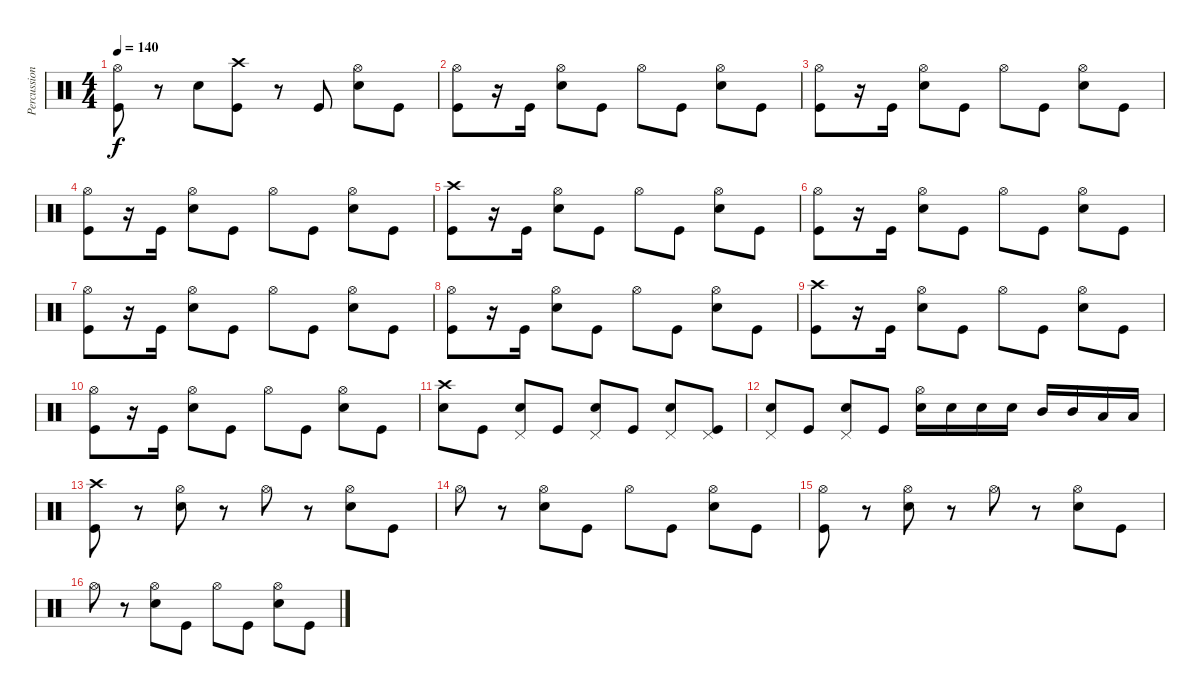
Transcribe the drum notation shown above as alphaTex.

\track ("Percussion" "Percussion") {instrument percussion}
\staff {score}
\articulation defaults
\ts (4 4)
\tempo 140
\clef neutral
\ks c
("Hi-Hat (open)" "Kick (hit)").8{dy f} r.8 "Snare (hit) 2".8 ("Crash high (hit)" "Kick (hit)").8 r.8 "Kick (hit)".8 ("Hi-Hat (open)" "Snare (hit) 2").8 "Kick (hit)".8 |
("Hi-Hat (open)" "Kick (hit)").8 r.16 "Kick (hit)".16 ("Hi-Hat (open)" "Snare (hit) 2").8 "Kick (hit)".8 "Hi-Hat (open)".8 "Kick (hit)".8 ("Hi-Hat (open)" "Snare (hit) 2").8 "Kick (hit)".8 |
("Hi-Hat (open)" "Kick (hit)").8 r.16 "Kick (hit)".16 ("Hi-Hat (open)" "Snare (hit) 2").8 "Kick (hit)".8 "Hi-Hat (open)".8 "Kick (hit)".8 ("Hi-Hat (open)" "Snare (hit) 2").8 "Kick (hit)".8 |
("Hi-Hat (open)" "Kick (hit)").8 r.16 "Kick (hit)".16 ("Hi-Hat (open)" "Snare (hit) 2").8 "Kick (hit)".8 "Hi-Hat (open)".8 "Kick (hit)".8 ("Hi-Hat (open)" "Snare (hit) 2").8 "Kick (hit)".8 |
("Crash high (hit)" "Kick (hit)").8 r.16 "Kick (hit)".16 ("Hi-Hat (open)" "Snare (hit) 2").8 "Kick (hit)".8 "Hi-Hat (open)".8 "Kick (hit)".8 ("Hi-Hat (open)" "Snare (hit) 2").8 "Kick (hit)".8 |
("Hi-Hat (open)" "Kick (hit)").8 r.16 "Kick (hit)".16 ("Hi-Hat (open)" "Snare (hit) 2").8 "Kick (hit)".8 "Hi-Hat (open)".8 "Kick (hit)".8 ("Hi-Hat (open)" "Snare (hit) 2").8 "Kick (hit)".8 |
("Hi-Hat (open)" "Kick (hit)").8 r.16 "Kick (hit)".16 ("Hi-Hat (open)" "Snare (hit) 2").8 "Kick (hit)".8 "Hi-Hat (open)".8 "Kick (hit)".8 ("Hi-Hat (open)" "Snare (hit) 2").8 "Kick (hit)".8 |
("Hi-Hat (open)" "Kick (hit)").8 r.16 "Kick (hit)".16 ("Hi-Hat (open)" "Snare (hit) 2").8 "Kick (hit)".8 "Hi-Hat (open)".8 "Kick (hit)".8 ("Hi-Hat (open)" "Snare (hit) 2").8 "Kick (hit)".8 |
("Crash high (hit)" "Kick (hit)").8 r.16 "Kick (hit)".16 ("Hi-Hat (open)" "Snare (hit) 2").8 "Kick (hit)".8 "Hi-Hat (open)".8 "Kick (hit)".8 ("Hi-Hat (open)" "Snare (hit) 2").8 "Kick (hit)".8 |
("Hi-Hat (open)" "Kick (hit)").8 r.16 "Kick (hit)".16 ("Hi-Hat (open)" "Snare (hit) 2").8 "Kick (hit)".8 "Hi-Hat (open)".8 "Kick (hit)".8 ("Hi-Hat (open)" "Snare (hit) 2").8 "Kick (hit)".8 |
("Crash high (hit)" "Snare (hit) 2").8 "Kick (hit)".8 ("Pedal Hi-Hat (hit)" "Snare (hit) 2").8 "Kick (hit)".8 ("Pedal Hi-Hat (hit)" "Snare (hit) 2").8 "Kick (hit)".8 ("Pedal Hi-Hat (hit)" "Snare (hit) 2").8 ("Pedal Hi-Hat (hit)" "Kick (hit)").8 |
("Pedal Hi-Hat (hit)" "Snare (hit) 2").8 "Kick (hit)".8 ("Pedal Hi-Hat (hit)" "Snare (hit) 2").8 "Kick (hit)".8 ("Hi-Hat (open)" "Snare (hit) 2").16 "Snare (hit) 2".16 "Snare (hit) 2".16 "Snare (hit) 2".16 "Mid Tom (hit)".16 "Mid Tom (hit)".16 "Low Tom (hit)".16 "Low Floor Tom (hit)".16 |
("Crash high (hit)" "Kick (hit)").8 r.8 ("Hi-Hat (open)" "Snare (hit) 2").8 r.8 "Hi-Hat (open)".8 r.8 ("Hi-Hat (open)" "Snare (hit) 2").8 "Kick (hit)".8 |
"Hi-Hat (open)".8 r.8 ("Hi-Hat (open)" "Snare (hit) 2").8 "Kick (hit)".8 "Hi-Hat (open)".8 "Kick (hit)".8 ("Hi-Hat (open)" "Snare (hit) 2").8 "Kick (hit)".8 |
("Hi-Hat (open)" "Kick (hit)").8 r.8 ("Hi-Hat (open)" "Snare (hit) 2").8 r.8 "Hi-Hat (open)".8 r.8 ("Hi-Hat (open)" "Snare (hit) 2").8 "Kick (hit)".8 |
"Hi-Hat (open)".8 r.8 ("Hi-Hat (open)" "Snare (hit) 2").8 "Kick (hit)".8 "Hi-Hat (open)".8 "Kick (hit)".8 ("Hi-Hat (open)" "Snare (hit) 2").8 "Kick (hit)".8
